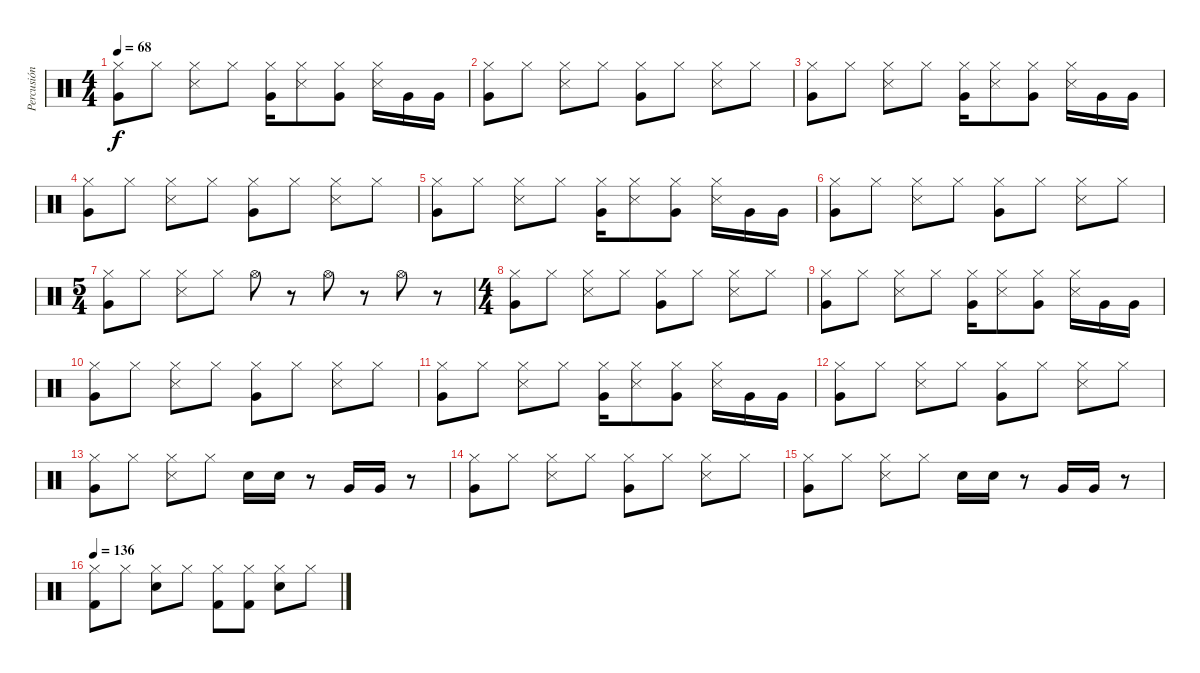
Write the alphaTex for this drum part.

\track ("Percusión" "Percusión") {instrument percussion}
\staff {score}
\articulation defaults
\ts (4 4)
\tempo 68
\clef neutral
\ks c
("Hi-Hat (closed)" "Very Low Tom (hit)").8{dy f} "Hi-Hat (closed)".8 ("Hi-Hat (closed)" "Snare (side stick) 3").8 "Hi-Hat (closed)".8 ("Hi-Hat (closed)" "Very Low Tom (hit)").16 ("Hi-Hat (closed)" "Snare (side stick) 3").8 ("Hi-Hat (closed)" "Very Low Tom (hit)").8 ("Hi-Hat (closed)" "Snare (side stick) 3").16 "Very Low Tom (hit)".16 "Very Low Tom (hit)".16 |
("Hi-Hat (closed)" "Very Low Tom (hit)").8 "Hi-Hat (closed)".8 ("Hi-Hat (closed)" "Snare (side stick) 3").8 "Hi-Hat (closed)".8 ("Hi-Hat (closed)" "Very Low Tom (hit)").8 "Hi-Hat (closed)".8 ("Hi-Hat (closed)" "Snare (side stick) 3").8 "Hi-Hat (closed)".8 |
("Hi-Hat (closed)" "Very Low Tom (hit)").8 "Hi-Hat (closed)".8 ("Hi-Hat (closed)" "Snare (side stick) 3").8 "Hi-Hat (closed)".8 ("Hi-Hat (closed)" "Very Low Tom (hit)").16 ("Hi-Hat (closed)" "Snare (side stick) 3").8 ("Hi-Hat (closed)" "Very Low Tom (hit)").8 ("Hi-Hat (closed)" "Snare (side stick) 3").16 "Very Low Tom (hit)".16 "Very Low Tom (hit)".16 |
("Hi-Hat (closed)" "Very Low Tom (hit)").8 "Hi-Hat (closed)".8 ("Hi-Hat (closed)" "Snare (side stick) 3").8 "Hi-Hat (closed)".8 ("Hi-Hat (closed)" "Very Low Tom (hit)").8 "Hi-Hat (closed)".8 ("Hi-Hat (closed)" "Snare (side stick) 3").8 "Hi-Hat (closed)".8 |
("Hi-Hat (closed)" "Very Low Tom (hit)").8 "Hi-Hat (closed)".8 ("Hi-Hat (closed)" "Snare (side stick) 3").8 "Hi-Hat (closed)".8 ("Hi-Hat (closed)" "Very Low Tom (hit)").16 ("Hi-Hat (closed)" "Snare (side stick) 3").8 ("Hi-Hat (closed)" "Very Low Tom (hit)").8 ("Hi-Hat (closed)" "Snare (side stick) 3").16 "Very Low Tom (hit)".16 "Very Low Tom (hit)".16 |
("Hi-Hat (closed)" "Very Low Tom (hit)").8 "Hi-Hat (closed)".8 ("Hi-Hat (closed)" "Snare (side stick) 3").8 "Hi-Hat (closed)".8 ("Hi-Hat (closed)" "Very Low Tom (hit)").8 "Hi-Hat (closed)".8 ("Hi-Hat (closed)" "Snare (side stick) 3").8 "Hi-Hat (closed)".8 |
\ts (5 4)
("Hi-Hat (closed)" "Very Low Tom (hit)").8 "Hi-Hat (closed)".8 ("Hi-Hat (closed)" "Snare (side stick) 3").8 "Hi-Hat (closed)".8 "Hi-Hat (open)".8 r.8 "Hi-Hat (open)".8 r.8 "Hi-Hat (open)".8 r.8 |
\ts (4 4)
("Hi-Hat (closed)" "Very Low Tom (hit)").8 "Hi-Hat (closed)".8 ("Hi-Hat (closed)" "Snare (side stick) 3").8 "Hi-Hat (closed)".8 ("Hi-Hat (closed)" "Very Low Tom (hit)").8 "Hi-Hat (closed)".8 ("Hi-Hat (closed)" "Snare (side stick) 3").8 "Hi-Hat (closed)".8 |
("Hi-Hat (closed)" "Very Low Tom (hit)").8 "Hi-Hat (closed)".8 ("Hi-Hat (closed)" "Snare (side stick) 3").8 "Hi-Hat (closed)".8 ("Hi-Hat (closed)" "Very Low Tom (hit)").16 ("Hi-Hat (closed)" "Snare (side stick) 3").8 ("Hi-Hat (closed)" "Very Low Tom (hit)").8 ("Hi-Hat (closed)" "Snare (side stick) 3").16 "Very Low Tom (hit)".16 "Very Low Tom (hit)".16 |
("Hi-Hat (closed)" "Very Low Tom (hit)").8 "Hi-Hat (closed)".8 ("Hi-Hat (closed)" "Snare (side stick) 3").8 "Hi-Hat (closed)".8 ("Hi-Hat (closed)" "Very Low Tom (hit)").8 "Hi-Hat (closed)".8 ("Hi-Hat (closed)" "Snare (side stick) 3").8 "Hi-Hat (closed)".8 |
("Hi-Hat (closed)" "Very Low Tom (hit)").8 "Hi-Hat (closed)".8 ("Hi-Hat (closed)" "Snare (side stick) 3").8 "Hi-Hat (closed)".8 ("Hi-Hat (closed)" "Very Low Tom (hit)").16 ("Hi-Hat (closed)" "Snare (side stick) 3").8 ("Hi-Hat (closed)" "Very Low Tom (hit)").8 ("Hi-Hat (closed)" "Snare (side stick) 3").16 "Very Low Tom (hit)".16 "Very Low Tom (hit)".16 |
("Hi-Hat (closed)" "Very Low Tom (hit)").8 "Hi-Hat (closed)".8 ("Hi-Hat (closed)" "Snare (side stick) 3").8 "Hi-Hat (closed)".8 ("Hi-Hat (closed)" "Very Low Tom (hit)").8 "Hi-Hat (closed)".8 ("Hi-Hat (closed)" "Snare (side stick) 3").8 "Hi-Hat (closed)".8 |
("Hi-Hat (closed)" "Very Low Tom (hit)").8 "Hi-Hat (closed)".8 ("Hi-Hat (closed)" "Snare (side stick) 3").8 "Hi-Hat (closed)".8 "Snare (hit) 2".16 "Snare (hit) 2".16 r.8 "Very Low Tom (hit)".16 "Very Low Tom (hit)".16 r.8 |
("Hi-Hat (closed)" "Very Low Tom (hit)").8 "Hi-Hat (closed)".8 ("Hi-Hat (closed)" "Snare (side stick) 3").8 "Hi-Hat (closed)".8 ("Hi-Hat (closed)" "Very Low Tom (hit)").8 "Hi-Hat (closed)".8 ("Hi-Hat (closed)" "Snare (side stick) 3").8 "Hi-Hat (closed)".8 |
("Hi-Hat (closed)" "Very Low Tom (hit)").8 "Hi-Hat (closed)".8 ("Hi-Hat (closed)" "Snare (side stick) 3").8 "Hi-Hat (closed)".8 "Snare (hit) 2".16 "Snare (hit) 2".16 r.8 "Very Low Tom (hit)".16 "Very Low Tom (hit)".16 r.8 |
\tempo 136
("Hi-Hat (closed)" "Kick (hit) 2").8 "Hi-Hat (closed)".8 ("Hi-Hat (closed)" "Snare (hit) 2").8 "Hi-Hat (closed)".8 ("Hi-Hat (closed)" "Kick (hit) 2").8 ("Hi-Hat (closed)" "Kick (hit) 2").8 ("Hi-Hat (closed)" "Snare (hit) 2").8 "Hi-Hat (closed)".8
